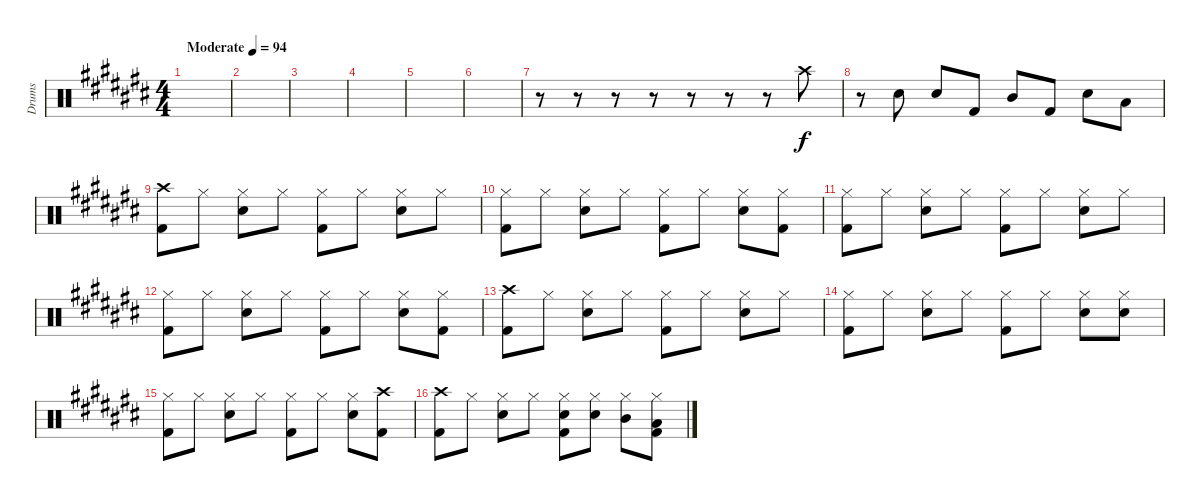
\track ("Drums" "Drums") {instrument percussion}
\staff {score}
\articulation defaults
\ts (4 4)
\tempo (94 "Moderate")
\clef neutral
\ks c#
|
|
|
|
|
|
r.8 r.8 r.8 r.8 r.8 r.8 r.8 "Crash high (hit)".8 |
r.8 "Snare (hit) 2".8 "Snare (hit) 2".8 "Kick (hit) 2".8 "Mid Tom (hit)".8 "Kick (hit) 2".8 "Snare (hit) 2".8 "Low Floor Tom (hit)".8 |
("Crash high (hit)" "Kick (hit) 2").8 "Hi-Hat (closed)".8 ("Hi-Hat (closed)" "Snare (hit) 2").8 "Hi-Hat (closed)".8 ("Hi-Hat (closed)" "Kick (hit) 2").8 "Hi-Hat (closed)".8 ("Hi-Hat (closed)" "Snare (hit) 2").8 "Hi-Hat (closed)".8 |
("Hi-Hat (closed)" "Kick (hit) 2").8 "Hi-Hat (closed)".8 ("Hi-Hat (closed)" "Snare (hit) 2").8 "Hi-Hat (closed)".8 ("Hi-Hat (closed)" "Kick (hit) 2").8 "Hi-Hat (closed)".8 ("Hi-Hat (closed)" "Snare (hit) 2").8 ("Hi-Hat (closed)" "Kick (hit) 2").8 |
("Hi-Hat (closed)" "Kick (hit) 2").8 "Hi-Hat (closed)".8 ("Hi-Hat (closed)" "Snare (hit) 2").8 "Hi-Hat (closed)".8 ("Hi-Hat (closed)" "Kick (hit) 2").8 "Hi-Hat (closed)".8 ("Hi-Hat (closed)" "Snare (hit) 2").8 "Hi-Hat (closed)".8 |
("Hi-Hat (closed)" "Kick (hit) 2").8 "Hi-Hat (closed)".8 ("Hi-Hat (closed)" "Snare (hit) 2").8 "Hi-Hat (closed)".8 ("Hi-Hat (closed)" "Kick (hit) 2").8 "Hi-Hat (closed)".8 ("Hi-Hat (closed)" "Snare (hit) 2").8 ("Hi-Hat (closed)" "Kick (hit) 2").8 |
("Crash high (hit)" "Kick (hit) 2").8 "Hi-Hat (closed)".8 ("Hi-Hat (closed)" "Snare (hit) 2").8 "Hi-Hat (closed)".8 ("Hi-Hat (closed)" "Kick (hit) 2").8 "Hi-Hat (closed)".8 ("Hi-Hat (closed)" "Snare (hit) 2").8 "Hi-Hat (closed)".8 |
("Hi-Hat (closed)" "Kick (hit) 2").8 "Hi-Hat (closed)".8 ("Hi-Hat (closed)" "Snare (hit) 2").8 "Hi-Hat (closed)".8 ("Hi-Hat (closed)" "Kick (hit) 2").8 "Hi-Hat (closed)".8 ("Hi-Hat (closed)" "Snare (hit) 2").8 ("Hi-Hat (closed)" "Snare (hit) 2").8 |
("Hi-Hat (closed)" "Kick (hit) 2").8 "Hi-Hat (closed)".8 ("Hi-Hat (closed)" "Snare (hit) 2").8 "Hi-Hat (closed)".8 ("Hi-Hat (closed)" "Kick (hit) 2").8 "Hi-Hat (closed)".8 ("Hi-Hat (closed)" "Snare (hit) 2").8 ("Crash high (hit)" "Kick (hit) 2").8 |
("Crash high (hit)" "Kick (hit) 2").8 "Hi-Hat (closed)".8 ("Hi-Hat (closed)" "Snare (hit) 2").8 "Hi-Hat (closed)".8 ("Hi-Hat (closed)" "Snare (hit) 2" "Kick (hit) 2").8 ("Hi-Hat (closed)" "Snare (hit) 2").8 ("Hi-Hat (closed)" "Mid Tom (hit)").8 ("Hi-Hat (closed)" "Low Floor Tom (hit)" "Kick (hit) 2").8
